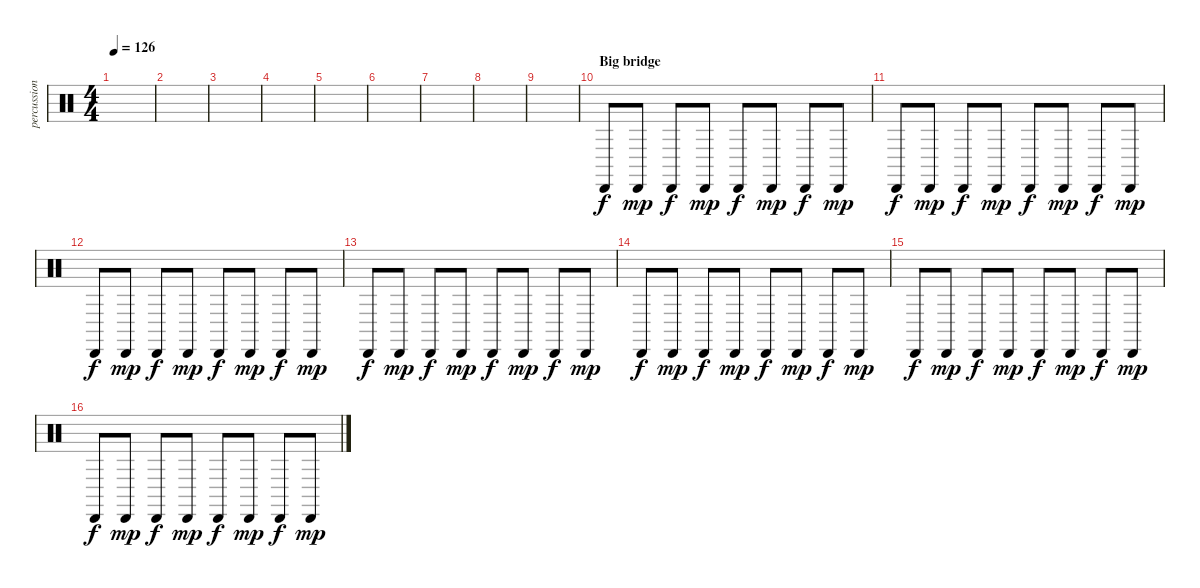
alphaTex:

\track ("percussion" "percussion") {instrument percussion}
\staff {score}
\articulation defaults
\ts (4 4)
\tempo 126
\clef neutral
\ks c
|
|
|
|
|
|
|
|
|
\section ("" "Big bridge")
"Cabasa (hit)".8 "Cabasa (hit)".8{dy mp} "Cabasa (hit)".8{dy f} "Cabasa (hit)".8{dy mp} "Cabasa (hit)".8{dy f} "Cabasa (hit)".8{dy mp} "Cabasa (hit)".8{dy f} "Cabasa (hit)".8{dy mp} |
"Cabasa (hit)".8{dy f} "Cabasa (hit)".8{dy mp} "Cabasa (hit)".8{dy f} "Cabasa (hit)".8{dy mp} "Cabasa (hit)".8{dy f} "Cabasa (hit)".8{dy mp} "Cabasa (hit)".8{dy f} "Cabasa (hit)".8{dy mp} |
"Cabasa (hit)".8{dy f} "Cabasa (hit)".8{dy mp} "Cabasa (hit)".8{dy f} "Cabasa (hit)".8{dy mp} "Cabasa (hit)".8{dy f} "Cabasa (hit)".8{dy mp} "Cabasa (hit)".8{dy f} "Cabasa (hit)".8{dy mp} |
"Cabasa (hit)".8{dy f} "Cabasa (hit)".8{dy mp} "Cabasa (hit)".8{dy f} "Cabasa (hit)".8{dy mp} "Cabasa (hit)".8{dy f} "Cabasa (hit)".8{dy mp} "Cabasa (hit)".8{dy f} "Cabasa (hit)".8{dy mp} |
"Cabasa (hit)".8{dy f} "Cabasa (hit)".8{dy mp} "Cabasa (hit)".8{dy f} "Cabasa (hit)".8{dy mp} "Cabasa (hit)".8{dy f} "Cabasa (hit)".8{dy mp} "Cabasa (hit)".8{dy f} "Cabasa (hit)".8{dy mp} |
"Cabasa (hit)".8{dy f} "Cabasa (hit)".8{dy mp} "Cabasa (hit)".8{dy f} "Cabasa (hit)".8{dy mp} "Cabasa (hit)".8{dy f} "Cabasa (hit)".8{dy mp} "Cabasa (hit)".8{dy f} "Cabasa (hit)".8{dy mp} |
"Cabasa (hit)".8{dy f} "Cabasa (hit)".8{dy mp} "Cabasa (hit)".8{dy f} "Cabasa (hit)".8{dy mp} "Cabasa (hit)".8{dy f} "Cabasa (hit)".8{dy mp} "Cabasa (hit)".8{dy f} "Cabasa (hit)".8{dy mp}
